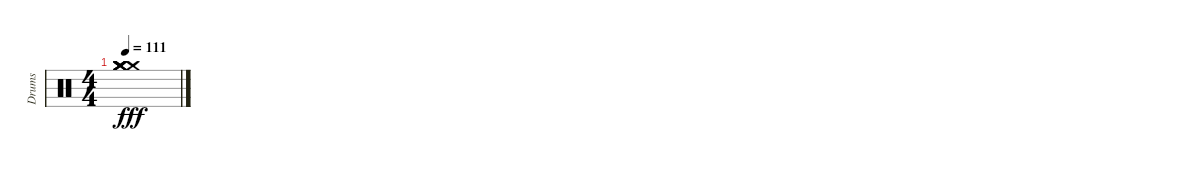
\track ("Drums" "Drums") {instrument percussion}
\staff {score}
\articulation defaults
\ts (4 4)
\tempo 111
\clef neutral
\ks c
("Crash medium (hit)" "Crash medium (hit)" "Crash medium (hit)" "Crash medium (hit)" "Crash medium (hit)" "Crash medium (hit)").1{dy fff}
